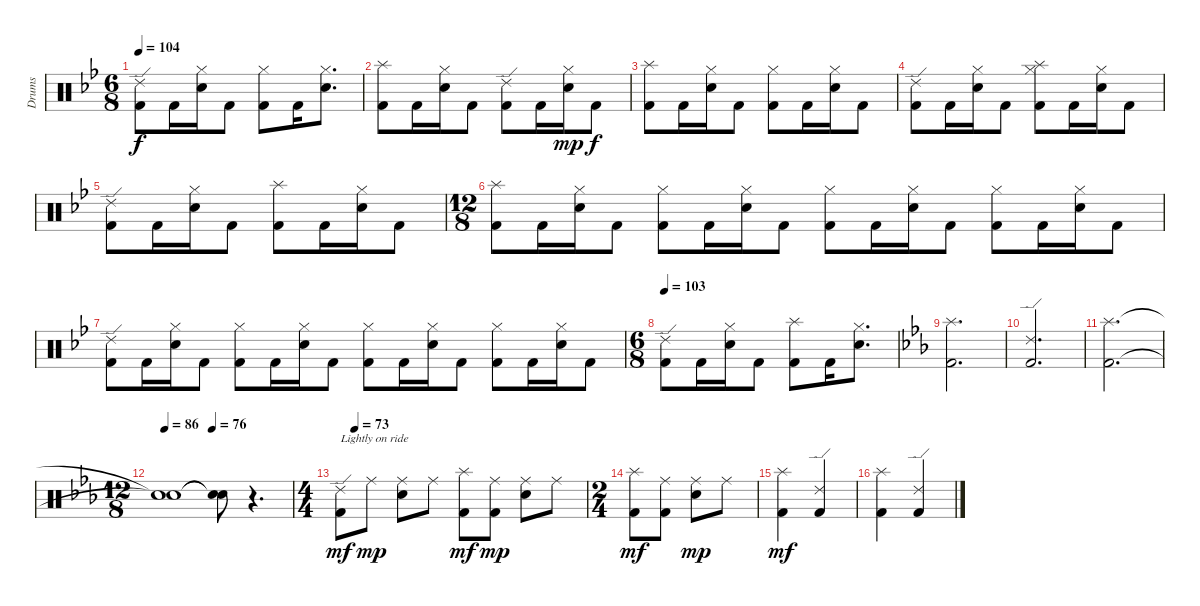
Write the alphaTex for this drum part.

\track ("Drums" "Drums") {instrument percussion}
\staff {score}
\articulation defaults
\ts (6 8)
\tempo 104
\clef neutral
\ks bb
("Ride (edge) 2" "Kick (hit) 2").8{dy f} "Kick (hit) 2".16 ("Electric Snare (hit)" "Hi-Hat (closed)").16 "Kick (hit) 2".8 ("Hi-Hat (closed)" "Kick (hit) 2").8 "Kick (hit) 2".16 ("Electric Snare (hit)" "Hi-Hat (closed)").8{d} |
("Splash (hit)" "Kick (hit) 2").8 "Kick (hit) 2".16 ("Electric Snare (hit)" "Hi-Hat (closed)").16 "Kick (hit) 2".8 ("Ride (edge) 2" "Kick (hit) 2").8 "Kick (hit) 2".16 ("Electric Snare (hit)" "Hi-Hat (closed)").16{dy mp} "Kick (hit) 2".8{dy f} |
("Splash (hit)" "Kick (hit) 2").8 "Kick (hit) 2".16 ("Electric Snare (hit)" "Hi-Hat (closed)").16 "Kick (hit) 2".8 ("Hi-Hat (closed)" "Kick (hit) 2").8 "Kick (hit) 2".16 ("Electric Snare (hit)" "Hi-Hat (closed)").16 "Kick (hit) 2".8 |
("Ride (edge) 2" "Kick (hit) 2").8 "Kick (hit) 2".16 ("Electric Snare (hit)" "Hi-Hat (closed)").16 "Kick (hit) 2".8 ("Splash (hit)" "Hi-Hat (closed)" "Kick (hit) 2").8 "Kick (hit) 2".16 ("Electric Snare (hit)" "Hi-Hat (closed)").16 "Kick (hit) 2".8 |
("Ride (edge) 2" "Kick (hit) 2").8 "Kick (hit) 2".16 ("Electric Snare (hit)" "Hi-Hat (closed)").16 "Kick (hit) 2".8 ("Splash (hit)" "Kick (hit) 2").8 "Kick (hit) 2".16 ("Electric Snare (hit)" "Hi-Hat (closed)").16 "Kick (hit) 2".8 |
\ts (12 8)
("Splash (hit)" "Kick (hit) 2").8 "Kick (hit) 2".16 ("Electric Snare (hit)" "Hi-Hat (closed)").16 "Kick (hit) 2".8 ("Hi-Hat (closed)" "Kick (hit) 2").8 "Kick (hit) 2".16 ("Electric Snare (hit)" "Hi-Hat (closed)").16 "Kick (hit) 2".8 ("Hi-Hat (closed)" "Kick (hit) 2").8 "Kick (hit) 2".16 ("Electric Snare (hit)" "Hi-Hat (closed)").16 "Kick (hit) 2".8 ("Hi-Hat (closed)" "Kick (hit) 2").8 "Kick (hit) 2".16 ("Electric Snare (hit)" "Hi-Hat (closed)").16 "Kick (hit) 2".8 |
("Ride (edge) 2" "Kick (hit) 2").8 "Kick (hit) 2".16 ("Electric Snare (hit)" "Hi-Hat (closed)").16 "Kick (hit) 2".8 ("Hi-Hat (closed)" "Kick (hit) 2").8 "Kick (hit) 2".16 ("Electric Snare (hit)" "Hi-Hat (closed)").16 "Kick (hit) 2".8 ("Hi-Hat (closed)" "Kick (hit) 2").8 "Kick (hit) 2".16 ("Electric Snare (hit)" "Hi-Hat (closed)").16 "Kick (hit) 2".8 ("Hi-Hat (closed)" "Kick (hit) 2").8 "Kick (hit) 2".16 ("Electric Snare (hit)" "Hi-Hat (closed)").16 "Kick (hit) 2".8 |
\ts (6 8)
\tempo 103
("Ride (edge) 2" "Kick (hit) 2").8 "Kick (hit) 2".16 ("Electric Snare (hit)" "Hi-Hat (closed)").16 "Kick (hit) 2".8 ("Splash (hit)" "Kick (hit) 2").8 "Kick (hit) 2".16 ("Electric Snare (hit)" "Hi-Hat (closed)").8{d} |
\ks eb
("Splash (hit)" "Kick (hit) 2").2{d} |
("Ride (edge) 2" "Kick (hit) 2").2{d} |
("Splash (hit)" "Kick (hit) 2").2{d} |
\ts (12 8)
\tempo 86
\tempo (76 0.375)
("Snare (hit)"{t} "Snare (hit)"{t}).1 ("Snare (hit)"{t} "Snare (hit)"{t}).8 r.4{d} |
\ts (4 4)
\tempo (73 0.0625)
("Ride (edge) 2" "Kick (hit) 2").8{txt "Lightly on ride" dy mf} "Ride (middle)".8{dy mp} ("Ride (middle)" "Electric Snare (hit)").8 "Ride (middle)".8 ("Splash (hit)" "Kick (hit) 2").8{dy mf} ("Ride (middle)" "Kick (hit) 2").8{dy mp} ("Ride (middle)" "Electric Snare (hit)").8 "Ride (middle)".8 |
\ts (2 4)
("Splash (hit)" "Kick (hit) 2").8{dy mf} ("Ride (middle)" "Kick (hit) 2").8 ("Ride (middle)" "Electric Snare (hit)").8{dy mp} "Ride (middle)".8 |
("Splash (hit)" "Kick (hit) 2").4{dy mf} ("Ride (edge) 2" "Kick (hit) 2").4 |
("Splash (hit)" "Kick (hit) 2").4 ("Ride (edge) 2" "Kick (hit) 2").4
